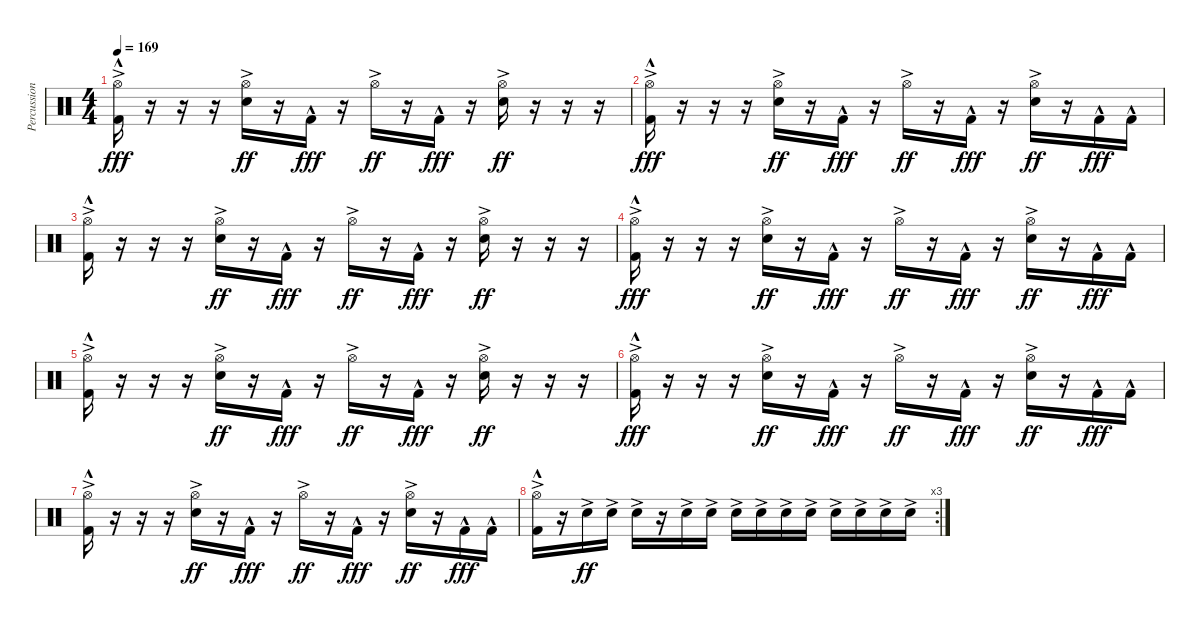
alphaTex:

\track ("Percussion" "Percussion") {instrument percussion}
\staff {score}
\articulation defaults
\ts (4 4)
\tempo 169
\clef neutral
\ks c
("Hi-Hat (open)"{ac} "Kick (hit) 2"{hac}).16{dy fff} r.16 r.16 r.16 ("Hi-Hat (open)"{ac} "Snare (hit) 2"{ac}).16{dy ff} r.16 "Kick (hit) 2"{hac}.16{dy fff} r.16 "Hi-Hat (open)"{ac}.16{dy ff} r.16 "Kick (hit) 2"{hac}.16{dy fff} r.16 ("Hi-Hat (open)"{ac} "Snare (hit) 2"{ac}).16{dy ff} r.16 r.16 r.16 |
("Hi-Hat (open)"{ac} "Kick (hit) 2"{hac}).16{dy fff} r.16 r.16 r.16 ("Hi-Hat (open)"{ac} "Snare (hit) 2"{ac}).16{dy ff} r.16 "Kick (hit) 2"{hac}.16{dy fff} r.16 "Hi-Hat (open)"{ac}.16{dy ff} r.16 "Kick (hit) 2"{hac}.16{dy fff} r.16 ("Hi-Hat (open)"{ac} "Snare (hit) 2"{ac}).16{dy ff} r.16 "Kick (hit) 2"{hac}.16{dy fff} "Kick (hit) 2"{hac}.16 |
("Hi-Hat (open)"{ac} "Kick (hit) 2"{hac}).16 r.16 r.16 r.16 ("Hi-Hat (open)"{ac} "Snare (hit) 2"{ac}).16{dy ff} r.16 "Kick (hit) 2"{hac}.16{dy fff} r.16 "Hi-Hat (open)"{ac}.16{dy ff} r.16 "Kick (hit) 2"{hac}.16{dy fff} r.16 ("Hi-Hat (open)"{ac} "Snare (hit) 2"{ac}).16{dy ff} r.16 r.16 r.16 |
("Hi-Hat (open)"{ac} "Kick (hit) 2"{hac}).16{dy fff} r.16 r.16 r.16 ("Hi-Hat (open)"{ac} "Snare (hit) 2"{ac}).16{dy ff} r.16 "Kick (hit) 2"{hac}.16{dy fff} r.16 "Hi-Hat (open)"{ac}.16{dy ff} r.16 "Kick (hit) 2"{hac}.16{dy fff} r.16 ("Hi-Hat (open)"{ac} "Snare (hit) 2"{ac}).16{dy ff} r.16 "Kick (hit) 2"{hac}.16{dy fff} "Kick (hit) 2"{hac}.16 |
("Hi-Hat (open)"{ac} "Kick (hit) 2"{hac}).16 r.16 r.16 r.16 ("Hi-Hat (open)"{ac} "Snare (hit) 2"{ac}).16{dy ff} r.16 "Kick (hit) 2"{hac}.16{dy fff} r.16 "Hi-Hat (open)"{ac}.16{dy ff} r.16 "Kick (hit) 2"{hac}.16{dy fff} r.16 ("Hi-Hat (open)"{ac} "Snare (hit) 2"{ac}).16{dy ff} r.16 r.16 r.16 |
("Hi-Hat (open)"{ac} "Kick (hit) 2"{hac}).16{dy fff} r.16 r.16 r.16 ("Hi-Hat (open)"{ac} "Snare (hit) 2"{ac}).16{dy ff} r.16 "Kick (hit) 2"{hac}.16{dy fff} r.16 "Hi-Hat (open)"{ac}.16{dy ff} r.16 "Kick (hit) 2"{hac}.16{dy fff} r.16 ("Hi-Hat (open)"{ac} "Snare (hit) 2"{ac}).16{dy ff} r.16 "Kick (hit) 2"{hac}.16{dy fff} "Kick (hit) 2"{hac}.16 |
("Hi-Hat (open)"{ac} "Kick (hit) 2"{hac}).16 r.16 r.16 r.16 ("Hi-Hat (open)"{ac} "Snare (hit) 2"{ac}).16{dy ff} r.16 "Kick (hit) 2"{hac}.16{dy fff} r.16 "Hi-Hat (open)"{ac}.16{dy ff} r.16 "Kick (hit) 2"{hac}.16{dy fff} r.16 ("Hi-Hat (open)"{ac} "Snare (hit) 2"{ac}).16{dy ff} r.16 "Kick (hit) 2"{hac}.16{dy fff} "Kick (hit) 2"{hac}.16 |
\rc 3
("Hi-Hat (open)"{ac} "Kick (hit) 2"{hac}).16 r.16 "Snare (hit) 2"{ac}.16{dy ff} "Snare (hit) 2"{ac}.16 "Snare (hit) 2"{ac}.16 r.16 "Snare (hit) 2"{ac}.16 "Snare (hit) 2"{ac}.16 "Snare (hit) 2"{ac}.16 "Snare (hit) 2"{ac}.16 "Snare (hit) 2"{ac}.16 "Snare (hit) 2"{ac}.16 "Snare (hit) 2"{ac}.16 "Snare (hit) 2"{ac}.16 "Snare (hit) 2"{ac}.16 "Snare (hit) 2"{ac}.16
